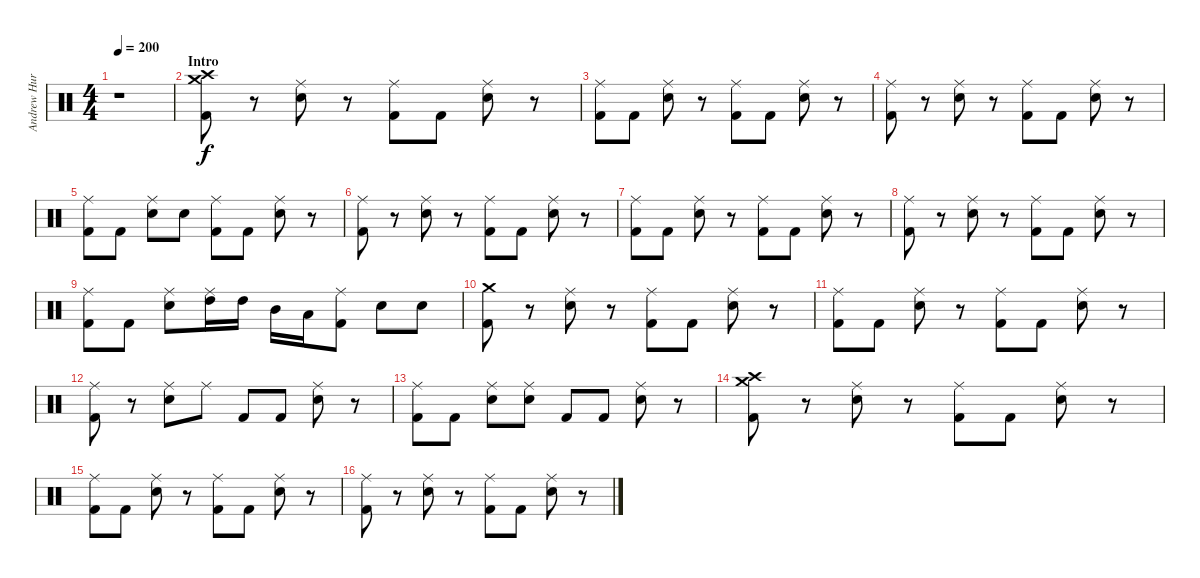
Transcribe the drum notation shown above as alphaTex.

\track ("Andrew Hurley (Drums)" "Andrew Hur") {instrument percussion}
\staff {score}
\articulation defaults
\ts (4 4)
\tempo 200
\clef neutral
\ks c
r.1{dy f} |
\section ("" "Intro")
("Crash high (hit)" "Crash medium (hit)" "Kick (hit) 2").8 r.8 ("Ride (middle)" "Electric Snare (hit)").8 r.8 ("Ride (middle)" "Kick (hit) 2").8 "Kick (hit) 2".8 ("Ride (middle)" "Electric Snare (hit)").8 r.8 |
("Ride (middle)" "Kick (hit) 2").8 "Kick (hit) 2".8 ("Ride (middle)" "Electric Snare (hit)").8 r.8 ("Ride (middle)" "Kick (hit) 2").8 "Kick (hit) 2".8 ("Ride (middle)" "Electric Snare (hit)").8 r.8 |
("Ride (middle)" "Kick (hit) 2").8 r.8 ("Ride (middle)" "Electric Snare (hit)").8 r.8 ("Ride (middle)" "Kick (hit) 2").8 "Kick (hit) 2".8 ("Ride (middle)" "Electric Snare (hit)").8 r.8 |
("Ride (middle)" "Kick (hit) 2").8 "Kick (hit) 2".8 ("Ride (middle)" "Electric Snare (hit)").8 "Electric Snare (hit)".8 ("Ride (middle)" "Kick (hit) 2").8 "Kick (hit) 2".8 ("Ride (middle)" "Electric Snare (hit)").8 r.8 |
("Ride (middle)" "Kick (hit) 2").8 r.8 ("Ride (middle)" "Electric Snare (hit)").8 r.8 ("Ride (middle)" "Kick (hit) 2").8 "Kick (hit) 2".8 ("Ride (middle)" "Electric Snare (hit)").8 r.8 |
("Ride (middle)" "Kick (hit) 2").8 "Kick (hit) 2".8 ("Ride (middle)" "Electric Snare (hit)").8 r.8 ("Ride (middle)" "Kick (hit) 2").8 "Kick (hit) 2".8 ("Ride (middle)" "Electric Snare (hit)").8 r.8 |
("Ride (middle)" "Kick (hit) 2").8 r.8 ("Ride (middle)" "Electric Snare (hit)").8 r.8 ("Ride (middle)" "Kick (hit) 2").8 "Kick (hit) 2".8 ("Ride (middle)" "Electric Snare (hit)").8 r.8 |
("Ride (middle)" "Kick (hit) 2").8 "Kick (hit) 2".8 ("Ride (middle)" "Electric Snare (hit)").8 ("Ride (middle)" "High Tom (hit)").16 "High Tom (hit)".16 "Mid Tom (hit)".16 "Low Tom (hit)".16 ("Ride (middle)" "Kick (hit) 2").8 "Electric Snare (hit)".8 "Electric Snare (hit)".8 |
("Crash medium (hit)" "Kick (hit) 2").8 r.8 ("Ride (middle)" "Electric Snare (hit)").8 r.8 ("Ride (middle)" "Kick (hit) 2").8 "Kick (hit) 2".8 ("Ride (middle)" "Electric Snare (hit)").8 r.8 |
("Ride (middle)" "Kick (hit) 2").8 "Kick (hit) 2".8 ("Ride (middle)" "Electric Snare (hit)").8 r.8 ("Ride (middle)" "Kick (hit) 2").8 "Kick (hit) 2".8 ("Ride (middle)" "Electric Snare (hit)").8 r.8 |
("Ride (middle)" "Kick (hit) 2").8 r.8 ("Ride (middle)" "Electric Snare (hit)").8 "Ride (middle)".8 "Kick (hit) 2".8 "Kick (hit) 2".8 ("Ride (middle)" "Electric Snare (hit)").8 r.8 |
("Ride (middle)" "Kick (hit) 2").8 "Kick (hit) 2".8 ("Ride (middle)" "Electric Snare (hit)").8 ("Ride (middle)" "Electric Snare (hit)").8 "Kick (hit) 2".8 "Kick (hit) 2".8 ("Ride (middle)" "Electric Snare (hit)").8 r.8 |
("Crash high (hit)" "Crash medium (hit)" "Kick (hit) 2").8 r.8 ("Ride (middle)" "Electric Snare (hit)").8 r.8 ("Ride (middle)" "Kick (hit) 2").8 "Kick (hit) 2".8 ("Ride (middle)" "Electric Snare (hit)").8 r.8 |
("Ride (middle)" "Kick (hit) 2").8 "Kick (hit) 2".8 ("Ride (middle)" "Electric Snare (hit)").8 r.8 ("Ride (middle)" "Kick (hit) 2").8 "Kick (hit) 2".8 ("Ride (middle)" "Electric Snare (hit)").8 r.8 |
("Ride (middle)" "Kick (hit) 2").8 r.8 ("Ride (middle)" "Electric Snare (hit)").8 r.8 ("Ride (middle)" "Kick (hit) 2").8 "Kick (hit) 2".8 ("Ride (middle)" "Electric Snare (hit)").8 r.8
